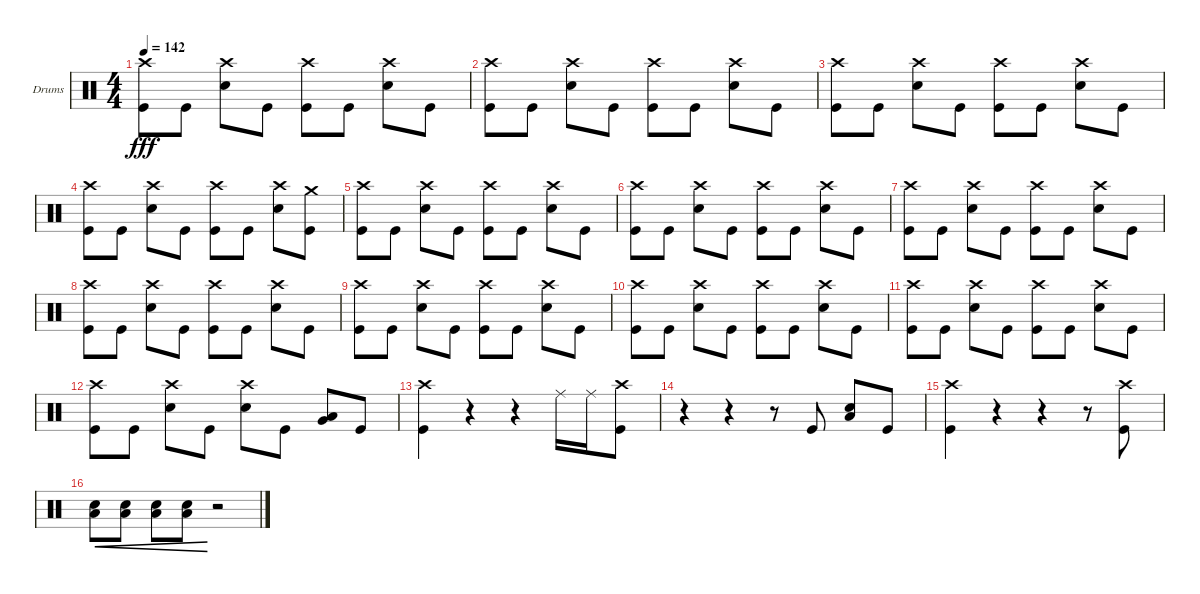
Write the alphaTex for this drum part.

\defaultSystemsLayout 4
\bracketExtendMode groupsimilarinstruments
\firstSystemTrackNameOrientation horizontal
\otherSystemsTrackNameOrientation horizontal
\track ("Drumkit" "Drums") {instrument percussion}
\staff {score}
\articulation defaults
\ts (4 4)
\tempo 142
\clef neutral
\scale
0.333333
\ks c
("Kick (hit)" "Crash high (hit)").8{dy fff} "Kick (hit)".8 ("Snare (hit) 2" "Crash high (hit)").8 "Kick (hit)".8 ("Kick (hit)" "Crash high (hit)").8 "Kick (hit)".8 ("Snare (hit) 2" "Crash high (hit)").8 "Kick (hit)".8 |
\scale
0.333333 ("Kick (hit)" "Crash high (hit)").8 "Kick (hit)".8 ("Snare (hit) 2" "Crash high (hit)").8 "Kick (hit)".8 ("Kick (hit)" "Crash high (hit)").8 "Kick (hit)".8 ("Snare (hit) 2" "Crash high (hit)").8 "Kick (hit)".8 |
\scale
0.333333 ("Kick (hit)" "Crash high (hit)").8 "Kick (hit)".8 ("Snare (hit) 2" "Crash high (hit)").8 "Kick (hit)".8 ("Kick (hit)" "Crash high (hit)").8 "Kick (hit)".8 ("Snare (hit) 2" "Crash high (hit)").8 "Kick (hit)".8 |
\scale
0.333333 ("Kick (hit)" "Crash high (hit)").8 "Kick (hit)".8 ("Snare (hit) 2" "Crash high (hit)").8 "Kick (hit)".8 ("Kick (hit)" "Crash high (hit)").8 "Kick (hit)".8 ("Snare (hit) 2" "Crash high (hit)").8 ("Kick (hit)" "Crash medium (hit)").8 |
\scale
0.333333 ("Kick (hit)" "Crash high (hit)").8 "Kick (hit)".8 ("Snare (hit) 2" "Crash high (hit)").8 "Kick (hit)".8 ("Kick (hit)" "Crash high (hit)").8 "Kick (hit)".8 ("Snare (hit) 2" "Crash high (hit)").8 "Kick (hit)".8 |
\scale
0.333333 ("Kick (hit)" "Crash high (hit)").8 "Kick (hit)".8 ("Snare (hit) 2" "Crash high (hit)").8 "Kick (hit)".8 ("Kick (hit)" "Crash high (hit)").8 "Kick (hit)".8 ("Snare (hit) 2" "Crash high (hit)").8 "Kick (hit)".8 |
\scale
0.333333 ("Kick (hit)" "Crash high (hit)").8 "Kick (hit)".8 ("Snare (hit) 2" "Crash high (hit)").8 "Kick (hit)".8 ("Kick (hit)" "Crash high (hit)").8 "Kick (hit)".8 ("Snare (hit) 2" "Crash high (hit)").8 "Kick (hit)".8 |
\scale
0.333333 ("Kick (hit)" "Crash high (hit)").8 "Kick (hit)".8 ("Snare (hit) 2" "Crash high (hit)").8 "Kick (hit)".8 ("Kick (hit)" "Crash high (hit)").8 "Kick (hit)".8 ("Snare (hit) 2" "Crash high (hit)").8 "Kick (hit)".8 |
\scale
0.333333 ("Kick (hit)" "Crash high (hit)").8 "Kick (hit)".8 ("Snare (hit) 2" "Crash high (hit)").8 "Kick (hit)".8 ("Kick (hit)" "Crash high (hit)").8 "Kick (hit)".8 ("Snare (hit) 2" "Crash high (hit)").8 "Kick (hit)".8 |
\scale
0.333333 ("Kick (hit)" "Crash high (hit)").8 "Kick (hit)".8 ("Snare (hit) 2" "Crash high (hit)").8 "Kick (hit)".8 ("Kick (hit)" "Crash high (hit)").8 "Kick (hit)".8 ("Snare (hit) 2" "Crash high (hit)").8 "Kick (hit)".8 |
\scale
0.333333 ("Kick (hit)" "Crash high (hit)").8 "Kick (hit)".8 ("Snare (hit) 2" "Crash high (hit)").8 "Kick (hit)".8 ("Kick (hit)" "Crash high (hit)").8 "Kick (hit)".8 ("Snare (hit) 2" "Crash high (hit)").8 "Kick (hit)".8 |
\scale
0.333333 ("Kick (hit)" "Crash high (hit)").8 "Kick (hit)".8 ("Snare (hit) 2" "Crash high (hit)").8 "Kick (hit)".8 ("Snare (hit) 2" "Crash high (hit)").8 "Kick (hit)".8 ("Low Tom (hit)" "Very Low Tom (hit)").8 "Kick (hit)".8 |
\scale
0.333333 ("Kick (hit)" "Crash high (hit)").4 r.4 r.4 "Ride (middle)".16 "Ride (middle)".16 ("Kick (hit)" "Crash high (hit)").8 |
\scale
0.333333 r.4 r.4 r.8 "Kick (hit)".8 ("Snare (hit) 2" "Low Tom (hit)").8 "Kick (hit)".8 |
\scale
0.333333 ("Kick (hit)" "Crash high (hit)").4 r.4 r.4 r.8 ("Kick (hit)" "Crash high (hit)").8 |
\scale
0.333333 ("Snare (hit) 2" "Low Tom (hit)").8{cre} ("Snare (hit) 2" "Low Tom (hit)").8{cre} ("Low Tom (hit)" "Snare (hit) 2").8{cre} ("Snare (hit) 2" "Low Tom (hit)").8{cre} r.2
